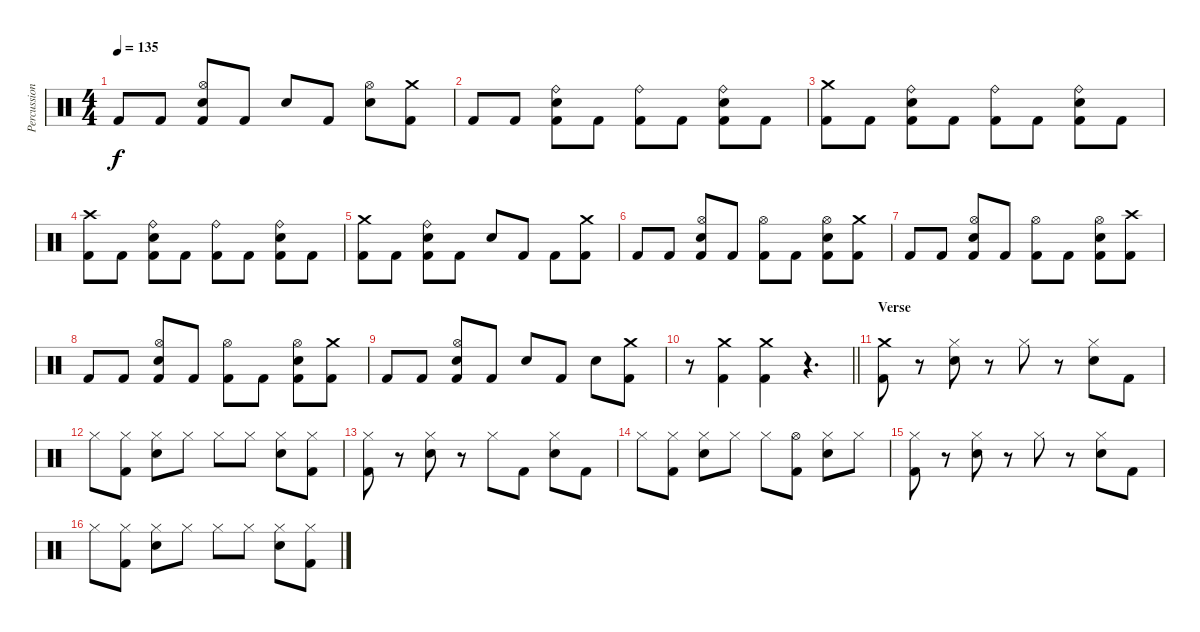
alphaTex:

\track ("Percussion" "Percussion") {instrument percussion}
\staff {score}
\articulation defaults
\ts (4 4)
\tempo 135
\clef neutral
\ks c "Kick (hit) 2".8{dy f} "Kick (hit) 2".8
("Hi-Hat (open)" "Electric Snare (hit)" "Kick (hit) 2").8 "Kick (hit) 2".8 "Electric Snare (hit)".8 "Kick (hit) 2".8 ("Hi-Hat (open)" "Electric Snare (hit)").8 ("Crash medium (hit)" "Kick (hit) 2").8 |
"Kick (hit) 2".8 "Kick (hit) 2".8 ("Ride (bell)" "Electric Snare (hit)" "Kick (hit) 2").8 "Kick (hit) 2".8 ("Ride (bell)" "Kick (hit) 2").8 "Kick (hit) 2".8 ("Ride (bell)" "Electric Snare (hit)" "Kick (hit) 2").8 "Kick (hit) 2".8 |
("Crash medium (hit)" "Kick (hit) 2").8 "Kick (hit) 2".8 ("Ride (bell)" "Electric Snare (hit)" "Kick (hit) 2").8 "Kick (hit) 2".8 ("Ride (bell)" "Kick (hit) 2").8 "Kick (hit) 2".8 ("Ride (bell)" "Electric Snare (hit)" "Kick (hit) 2").8 "Kick (hit) 2".8 |
("Crash high (hit)" "Kick (hit) 2").8 "Kick (hit) 2".8 ("Ride (bell)" "Electric Snare (hit)" "Kick (hit) 2").8 "Kick (hit) 2".8 ("Ride (bell)" "Kick (hit) 2").8 "Kick (hit) 2".8 ("Ride (bell)" "Electric Snare (hit)" "Kick (hit) 2").8 "Kick (hit) 2".8 |
("Crash medium (hit)" "Kick (hit) 2").8 "Kick (hit) 2".8 ("Ride (bell)" "Electric Snare (hit)" "Kick (hit) 2").8 "Kick (hit) 2".8 "Electric Snare (hit)".8 "Kick (hit) 2".8 "Kick (hit) 2".8 ("Crash medium (hit)" "Kick (hit) 2").8 |
"Kick (hit) 2".8 "Kick (hit) 2".8 ("Hi-Hat (open)" "Electric Snare (hit)" "Kick (hit) 2").8 "Kick (hit) 2".8 ("Hi-Hat (open)" "Kick (hit) 2").8 "Kick (hit) 2".8 ("Hi-Hat (open)" "Electric Snare (hit)" "Kick (hit) 2").8 ("Crash medium (hit)" "Kick (hit) 2").8 |
"Kick (hit) 2".8 "Kick (hit) 2".8 ("Hi-Hat (open)" "Electric Snare (hit)" "Kick (hit) 2").8 "Kick (hit) 2".8 ("Hi-Hat (open)" "Kick (hit) 2").8 "Kick (hit) 2".8 ("Hi-Hat (open)" "Electric Snare (hit)" "Kick (hit) 2").8 ("Crash high (hit)" "Kick (hit) 2").8 |
"Kick (hit) 2".8 "Kick (hit) 2".8 ("Hi-Hat (open)" "Electric Snare (hit)" "Kick (hit) 2").8 "Kick (hit) 2".8 ("Hi-Hat (open)" "Kick (hit) 2").8 "Kick (hit) 2".8 ("Hi-Hat (open)" "Electric Snare (hit)" "Kick (hit) 2").8 ("Crash medium (hit)" "Kick (hit) 2").8 |
"Kick (hit) 2".8 "Kick (hit) 2".8 ("Hi-Hat (open)" "Electric Snare (hit)" "Kick (hit) 2").8 "Kick (hit) 2".8 "Electric Snare (hit)".8 "Kick (hit) 2".8 "Electric Snare (hit)".8 ("Crash medium (hit)" "Kick (hit) 2").8 |
\barLineRight lightlight
r.8 ("Crash medium (hit)" "Kick (hit) 2").4 ("Crash medium (hit)" "Kick (hit) 2").4 r.4{d} |
\section ("" "Verse")
("Crash medium (hit)" "Kick (hit) 2").8 r.8 ("Hi-Hat (closed)" "Electric Snare (hit)").8 r.8 "Hi-Hat (closed)".8 r.8 ("Hi-Hat (closed)" "Electric Snare (hit)").8 "Kick (hit) 2".8 |
"Hi-Hat (closed)".8 ("Hi-Hat (closed)" "Kick (hit) 2").8 ("Hi-Hat (closed)" "Electric Snare (hit)").8 "Hi-Hat (closed)".8 "Hi-Hat (closed)".8 "Hi-Hat (closed)".8 ("Hi-Hat (closed)" "Electric Snare (hit)").8 ("Hi-Hat (closed)" "Kick (hit) 2").8 |
("Hi-Hat (closed)" "Kick (hit) 2").8 r.8 ("Hi-Hat (closed)" "Electric Snare (hit)").8 r.8 "Hi-Hat (closed)".8 "Kick (hit) 2".8 ("Hi-Hat (closed)" "Electric Snare (hit)").8 "Kick (hit) 2".8 |
"Hi-Hat (closed)".8 ("Hi-Hat (closed)" "Kick (hit) 2").8 ("Hi-Hat (closed)" "Electric Snare (hit)").8 "Hi-Hat (closed)".8 "Hi-Hat (closed)".8 ("Hi-Hat (open)" "Kick (hit) 2").8 ("Hi-Hat (closed)" "Electric Snare (hit)").8 "Hi-Hat (closed)".8 |
("Hi-Hat (closed)" "Kick (hit) 2").8 r.8 ("Hi-Hat (closed)" "Electric Snare (hit)").8 r.8 "Hi-Hat (closed)".8 r.8 ("Hi-Hat (closed)" "Electric Snare (hit)").8 "Kick (hit) 2".8 |
"Hi-Hat (closed)".8 ("Hi-Hat (closed)" "Kick (hit) 2").8 ("Hi-Hat (closed)" "Electric Snare (hit)").8 "Hi-Hat (closed)".8 "Hi-Hat (closed)".8 "Hi-Hat (closed)".8 ("Hi-Hat (closed)" "Electric Snare (hit)").8 ("Hi-Hat (closed)" "Kick (hit) 2").8
